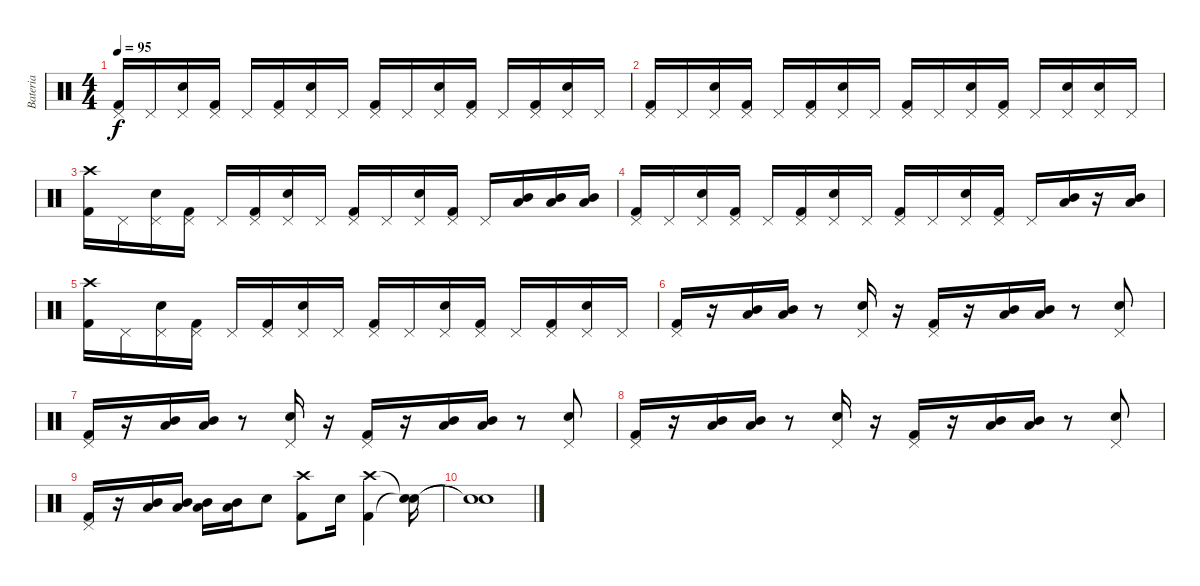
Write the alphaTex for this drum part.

\track ("Bateria" "Bateria") {instrument percussion}
\staff {score}
\articulation defaults
\ts (4 4)
\tempo 95
\clef neutral
\ks c
("Pedal Hi-Hat (hit)" "Kick (hit) 2").16{dy f} "Pedal Hi-Hat (hit)".16 ("Pedal Hi-Hat (hit)" "Electric Snare (hit)").16 ("Pedal Hi-Hat (hit)" "Kick (hit) 2").16 "Pedal Hi-Hat (hit)".16 ("Pedal Hi-Hat (hit)" "Kick (hit) 2").16 ("Pedal Hi-Hat (hit)" "Electric Snare (hit)").16 "Pedal Hi-Hat (hit)".16 ("Pedal Hi-Hat (hit)" "Kick (hit) 2").16 "Pedal Hi-Hat (hit)".16 ("Pedal Hi-Hat (hit)" "Electric Snare (hit)").16 ("Pedal Hi-Hat (hit)" "Kick (hit) 2").16 "Pedal Hi-Hat (hit)".16 ("Pedal Hi-Hat (hit)" "Kick (hit) 2").16 ("Pedal Hi-Hat (hit)" "Electric Snare (hit)").16 "Pedal Hi-Hat (hit)".16 |
("Pedal Hi-Hat (hit)" "Kick (hit) 2").16 "Pedal Hi-Hat (hit)".16 ("Pedal Hi-Hat (hit)" "Electric Snare (hit)").16 ("Pedal Hi-Hat (hit)" "Kick (hit) 2").16 "Pedal Hi-Hat (hit)".16 ("Pedal Hi-Hat (hit)" "Kick (hit) 2").16 ("Pedal Hi-Hat (hit)" "Electric Snare (hit)").16 "Pedal Hi-Hat (hit)".16 ("Pedal Hi-Hat (hit)" "Kick (hit) 2").16 "Pedal Hi-Hat (hit)".16 ("Pedal Hi-Hat (hit)" "Electric Snare (hit)").16 ("Pedal Hi-Hat (hit)" "Kick (hit) 2").16 "Pedal Hi-Hat (hit)".16 ("Pedal Hi-Hat (hit)" "Electric Snare (hit)").16 ("Pedal Hi-Hat (hit)" "Electric Snare (hit)").16 "Pedal Hi-Hat (hit)".16 |
("Crash high (hit)" "Kick (hit) 2").16 "Pedal Hi-Hat (hit)".16 ("Pedal Hi-Hat (hit)" "Electric Snare (hit)").16 ("Pedal Hi-Hat (hit)" "Kick (hit) 2").16 "Pedal Hi-Hat (hit)".16 ("Pedal Hi-Hat (hit)" "Kick (hit) 2").16 ("Pedal Hi-Hat (hit)" "Electric Snare (hit)").16 "Pedal Hi-Hat (hit)".16 ("Pedal Hi-Hat (hit)" "Kick (hit) 2").16 "Pedal Hi-Hat (hit)".16 ("Pedal Hi-Hat (hit)" "Electric Snare (hit)").16 ("Pedal Hi-Hat (hit)" "Kick (hit) 2").16 "Pedal Hi-Hat (hit)".16 ("Mid Tom (hit)" "Low Tom (hit)").16 ("Mid Tom (hit)" "Low Tom (hit)").16 ("Mid Tom (hit)" "Low Tom (hit)").16 |
("Pedal Hi-Hat (hit)" "Kick (hit) 2").16 "Pedal Hi-Hat (hit)".16 ("Pedal Hi-Hat (hit)" "Electric Snare (hit)").16 ("Pedal Hi-Hat (hit)" "Kick (hit) 2").16 "Pedal Hi-Hat (hit)".16 ("Pedal Hi-Hat (hit)" "Kick (hit) 2").16 ("Pedal Hi-Hat (hit)" "Electric Snare (hit)").16 "Pedal Hi-Hat (hit)".16 ("Pedal Hi-Hat (hit)" "Kick (hit) 2").16 "Pedal Hi-Hat (hit)".16 ("Pedal Hi-Hat (hit)" "Electric Snare (hit)").16 ("Pedal Hi-Hat (hit)" "Kick (hit) 2").16 "Pedal Hi-Hat (hit)".16 ("Mid Tom (hit)" "Low Tom (hit)").16 r.16 ("Mid Tom (hit)" "Low Tom (hit)").16 |
("Crash high (hit)" "Kick (hit) 2").16 "Pedal Hi-Hat (hit)".16 ("Pedal Hi-Hat (hit)" "Electric Snare (hit)").16 ("Pedal Hi-Hat (hit)" "Kick (hit) 2").16 "Pedal Hi-Hat (hit)".16 ("Pedal Hi-Hat (hit)" "Kick (hit) 2").16 ("Pedal Hi-Hat (hit)" "Electric Snare (hit)").16 "Pedal Hi-Hat (hit)".16 ("Pedal Hi-Hat (hit)" "Kick (hit) 2").16 "Pedal Hi-Hat (hit)".16 ("Pedal Hi-Hat (hit)" "Electric Snare (hit)").16 ("Pedal Hi-Hat (hit)" "Kick (hit) 2").16 "Pedal Hi-Hat (hit)".16 ("Pedal Hi-Hat (hit)" "Kick (hit) 2").16 ("Pedal Hi-Hat (hit)" "Electric Snare (hit)").16 "Pedal Hi-Hat (hit)".16 |
("Pedal Hi-Hat (hit)" "Kick (hit) 2").16 r.16 ("Mid Tom (hit)" "Low Tom (hit)").16 ("Mid Tom (hit)" "Low Tom (hit)").16 r.8 ("Pedal Hi-Hat (hit)" "Electric Snare (hit)").16 r.16 ("Pedal Hi-Hat (hit)" "Kick (hit) 2").16 r.16 ("Mid Tom (hit)" "Low Tom (hit)").16 ("Mid Tom (hit)" "Low Tom (hit)").16 r.8 ("Pedal Hi-Hat (hit)" "Electric Snare (hit)").8 |
("Pedal Hi-Hat (hit)" "Kick (hit) 2").16 r.16 ("Mid Tom (hit)" "Low Tom (hit)").16 ("Mid Tom (hit)" "Low Tom (hit)").16 r.8 ("Pedal Hi-Hat (hit)" "Electric Snare (hit)").16 r.16 ("Pedal Hi-Hat (hit)" "Kick (hit) 2").16 r.16 ("Mid Tom (hit)" "Low Tom (hit)").16 ("Mid Tom (hit)" "Low Tom (hit)").16 r.8 ("Pedal Hi-Hat (hit)" "Electric Snare (hit)").8 |
("Pedal Hi-Hat (hit)" "Kick (hit) 2").16 r.16 ("Mid Tom (hit)" "Low Tom (hit)").16 ("Mid Tom (hit)" "Low Tom (hit)").16 r.8 ("Pedal Hi-Hat (hit)" "Electric Snare (hit)").16 r.16 ("Pedal Hi-Hat (hit)" "Kick (hit) 2").16 r.16 ("Mid Tom (hit)" "Low Tom (hit)").16 ("Mid Tom (hit)" "Low Tom (hit)").16 r.8 ("Pedal Hi-Hat (hit)" "Electric Snare (hit)").8 |
("Pedal Hi-Hat (hit)" "Kick (hit) 2").16 r.16 ("Mid Tom (hit)" "Low Tom (hit)").16 ("Mid Tom (hit)" "Low Tom (hit)").16 ("Mid Tom (hit)" "Low Tom (hit)").16 ("Mid Tom (hit)" "Low Tom (hit)").16 "Electric Snare (hit)".8 ("Crash high (hit)" "Kick (hit) 2").8 "Electric Snare (hit)".16 ("Crash high (hit)" "Kick (hit) 2").4 ("Snare (hit)"{t} "Snare (hit)"{t}).16 |
("Snare (hit)"{t} "Snare (hit)"{t}).1
